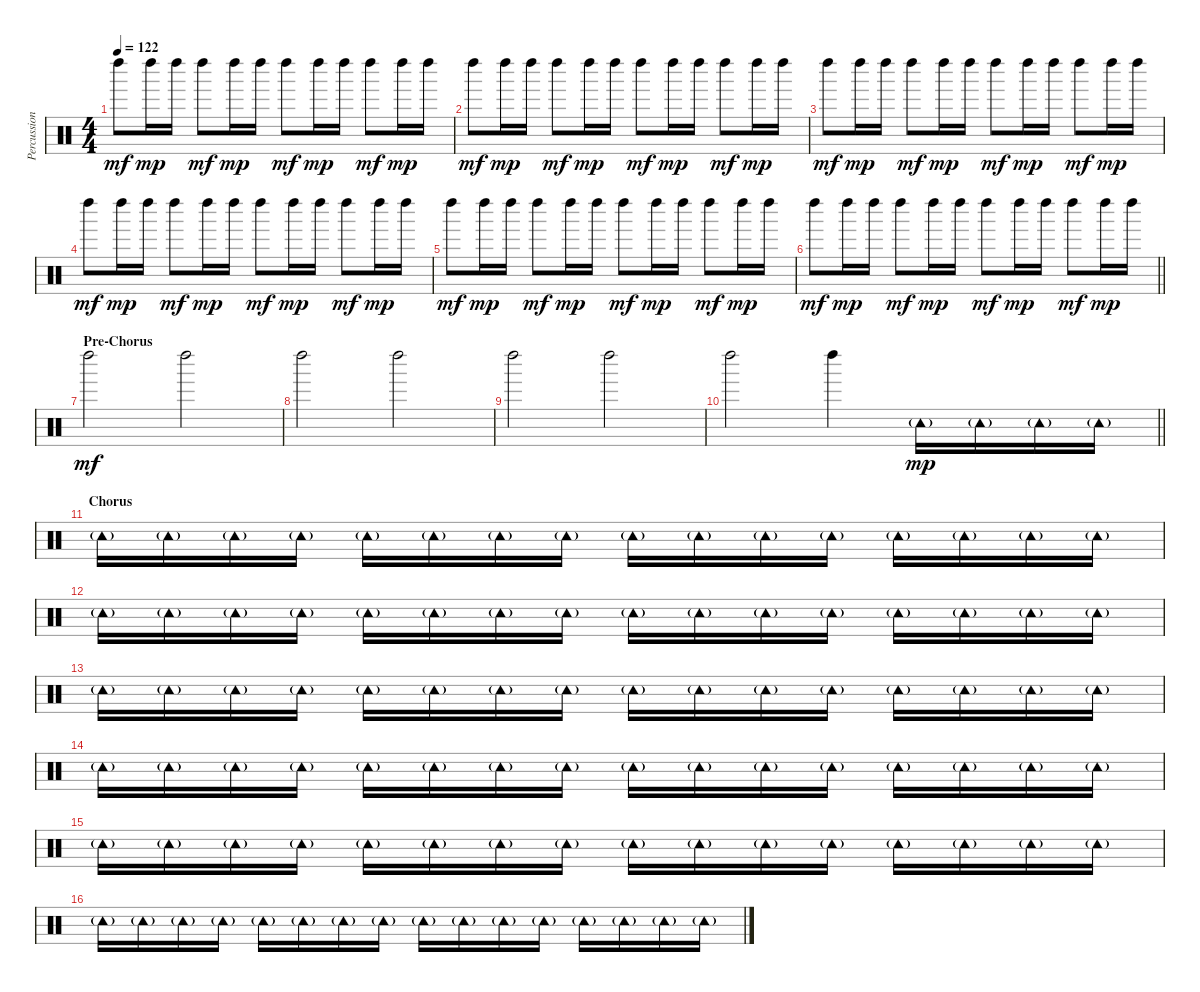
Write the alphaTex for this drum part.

\track ("Percussioni" "Percussion") {instrument percussion}
\staff {score}
\articulation defaults
\ts (4 4)
\tempo 122
\clef neutral
\ks c "Left Maraca (hit)".8{dy mf} "Left Maraca (hit)".16{dy mp} "Left Maraca (hit)".16 "Left Maraca (hit)".8{dy mf} "Left Maraca (hit)".16{dy mp} "Left Maraca (hit)".16 "Left Maraca (hit)".8{dy mf} "Left Maraca (hit)".16{dy mp} "Left Maraca (hit)".16 "Left Maraca (hit)".8{dy mf} "Left Maraca (hit)".16{dy mp} "Left Maraca (hit)".16
|
"Left Maraca (hit)".8{dy mf} "Left Maraca (hit)".16{dy mp} "Left Maraca (hit)".16 "Left Maraca (hit)".8{dy mf} "Left Maraca (hit)".16{dy mp} "Left Maraca (hit)".16 "Left Maraca (hit)".8{dy mf} "Left Maraca (hit)".16{dy mp} "Left Maraca (hit)".16 "Left Maraca (hit)".8{dy mf} "Left Maraca (hit)".16{dy mp} "Left Maraca (hit)".16 |
"Left Maraca (hit)".8{dy mf} "Left Maraca (hit)".16{dy mp} "Left Maraca (hit)".16 "Left Maraca (hit)".8{dy mf} "Left Maraca (hit)".16{dy mp} "Left Maraca (hit)".16 "Left Maraca (hit)".8{dy mf} "Left Maraca (hit)".16{dy mp} "Left Maraca (hit)".16 "Left Maraca (hit)".8{dy mf} "Left Maraca (hit)".16{dy mp} "Left Maraca (hit)".16 |
"Left Maraca (hit)".8{dy mf} "Left Maraca (hit)".16{dy mp} "Left Maraca (hit)".16 "Left Maraca (hit)".8{dy mf} "Left Maraca (hit)".16{dy mp} "Left Maraca (hit)".16 "Left Maraca (hit)".8{dy mf} "Left Maraca (hit)".16{dy mp} "Left Maraca (hit)".16 "Left Maraca (hit)".8{dy mf} "Left Maraca (hit)".16{dy mp} "Left Maraca (hit)".16 |
"Left Maraca (hit)".8{dy mf} "Left Maraca (hit)".16{dy mp} "Left Maraca (hit)".16 "Left Maraca (hit)".8{dy mf} "Left Maraca (hit)".16{dy mp} "Left Maraca (hit)".16 "Left Maraca (hit)".8{dy mf} "Left Maraca (hit)".16{dy mp} "Left Maraca (hit)".16 "Left Maraca (hit)".8{dy mf} "Left Maraca (hit)".16{dy mp} "Left Maraca (hit)".16 |
\barLineRight lightlight "Left Maraca (hit)".8{dy mf} "Left Maraca (hit)".16{dy mp} "Left Maraca (hit)".16 "Left Maraca (hit)".8{dy mf} "Left Maraca (hit)".16{dy mp} "Left Maraca (hit)".16 "Left Maraca (hit)".8{dy mf} "Left Maraca (hit)".16{dy mp} "Left Maraca (hit)".16 "Left Maraca (hit)".8{dy mf} "Left Maraca (hit)".16{dy mp} "Left Maraca (hit)".16
|
\section ("" "Pre-Chorus")
"Left Maraca (hit)".2{dy mf} "Left Maraca (hit)".2 |
"Left Maraca (hit)".2 "Left Maraca (hit)".2 |
"Left Maraca (hit)".2 "Left Maraca (hit)".2 |
\barLineRight lightlight "Left Maraca (hit)".2 "Left Maraca (hit)".4 "Tambourine (hit)"{g}.16{dy mp} "Tambourine (hit)"{g}.16 "Tambourine (hit)"{g}.16 "Tambourine (hit)"{g}.16
|
\section ("" "Chorus")
"Tambourine (hit)"{g}.16 "Tambourine (hit)"{g}.16 "Tambourine (hit)"{g}.16 "Tambourine (hit)"{g}.16 "Tambourine (hit)"{g}.16 "Tambourine (hit)"{g}.16 "Tambourine (hit)"{g}.16 "Tambourine (hit)"{g}.16 "Tambourine (hit)"{g}.16 "Tambourine (hit)"{g}.16 "Tambourine (hit)"{g}.16 "Tambourine (hit)"{g}.16 "Tambourine (hit)"{g}.16 "Tambourine (hit)"{g}.16 "Tambourine (hit)"{g}.16 "Tambourine (hit)"{g}.16 |
"Tambourine (hit)"{g}.16 "Tambourine (hit)"{g}.16 "Tambourine (hit)"{g}.16 "Tambourine (hit)"{g}.16 "Tambourine (hit)"{g}.16 "Tambourine (hit)"{g}.16 "Tambourine (hit)"{g}.16 "Tambourine (hit)"{g}.16 "Tambourine (hit)"{g}.16 "Tambourine (hit)"{g}.16 "Tambourine (hit)"{g}.16 "Tambourine (hit)"{g}.16 "Tambourine (hit)"{g}.16 "Tambourine (hit)"{g}.16 "Tambourine (hit)"{g}.16 "Tambourine (hit)"{g}.16 |
"Tambourine (hit)"{g}.16 "Tambourine (hit)"{g}.16 "Tambourine (hit)"{g}.16 "Tambourine (hit)"{g}.16 "Tambourine (hit)"{g}.16 "Tambourine (hit)"{g}.16 "Tambourine (hit)"{g}.16 "Tambourine (hit)"{g}.16 "Tambourine (hit)"{g}.16 "Tambourine (hit)"{g}.16 "Tambourine (hit)"{g}.16 "Tambourine (hit)"{g}.16 "Tambourine (hit)"{g}.16 "Tambourine (hit)"{g}.16 "Tambourine (hit)"{g}.16 "Tambourine (hit)"{g}.16 |
"Tambourine (hit)"{g}.16 "Tambourine (hit)"{g}.16 "Tambourine (hit)"{g}.16 "Tambourine (hit)"{g}.16 "Tambourine (hit)"{g}.16 "Tambourine (hit)"{g}.16 "Tambourine (hit)"{g}.16 "Tambourine (hit)"{g}.16 "Tambourine (hit)"{g}.16 "Tambourine (hit)"{g}.16 "Tambourine (hit)"{g}.16 "Tambourine (hit)"{g}.16 "Tambourine (hit)"{g}.16 "Tambourine (hit)"{g}.16 "Tambourine (hit)"{g}.16 "Tambourine (hit)"{g}.16 |
"Tambourine (hit)"{g}.16 "Tambourine (hit)"{g}.16 "Tambourine (hit)"{g}.16 "Tambourine (hit)"{g}.16 "Tambourine (hit)"{g}.16 "Tambourine (hit)"{g}.16 "Tambourine (hit)"{g}.16 "Tambourine (hit)"{g}.16 "Tambourine (hit)"{g}.16 "Tambourine (hit)"{g}.16 "Tambourine (hit)"{g}.16 "Tambourine (hit)"{g}.16 "Tambourine (hit)"{g}.16 "Tambourine (hit)"{g}.16 "Tambourine (hit)"{g}.16 "Tambourine (hit)"{g}.16 |
"Tambourine (hit)"{g}.16 "Tambourine (hit)"{g}.16 "Tambourine (hit)"{g}.16 "Tambourine (hit)"{g}.16 "Tambourine (hit)"{g}.16 "Tambourine (hit)"{g}.16 "Tambourine (hit)"{g}.16 "Tambourine (hit)"{g}.16 "Tambourine (hit)"{g}.16 "Tambourine (hit)"{g}.16 "Tambourine (hit)"{g}.16 "Tambourine (hit)"{g}.16 "Tambourine (hit)"{g}.16 "Tambourine (hit)"{g}.16 "Tambourine (hit)"{g}.16 "Tambourine (hit)"{g}.16
